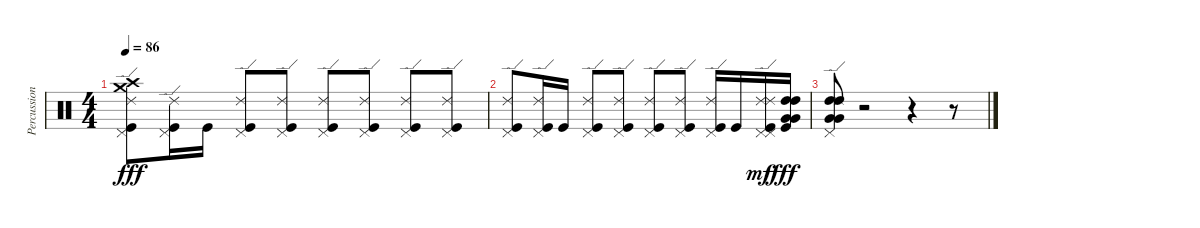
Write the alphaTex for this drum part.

\track ("Percussion" "Percussion") {instrument percussion}
\staff {score}
\articulation defaults
\ts (4 4)
\tempo 86
\clef neutral
\ks c
("Pedal Hi-Hat (hit)" "Ride (edge) 2" "Kick (hit)" "Crash medium (hit)" "Crash high (hit)").8{dy fff} ("Pedal Hi-Hat (hit)" "Ride (edge) 2" "Kick (hit)").16 "Kick (hit)".16 ("Pedal Hi-Hat (hit)" "Ride (edge) 2" "Kick (hit)").8 ("Pedal Hi-Hat (hit)" "Ride (edge) 2" "Kick (hit)").8 ("Pedal Hi-Hat (hit)" "Ride (edge) 2" "Kick (hit)").8 ("Pedal Hi-Hat (hit)" "Ride (edge) 2" "Kick (hit)").8 ("Pedal Hi-Hat (hit)" "Ride (edge) 2" "Kick (hit)").8 ("Pedal Hi-Hat (hit)" "Ride (edge) 2" "Kick (hit)").8 |
("Pedal Hi-Hat (hit)" "Ride (edge) 2" "Kick (hit)").8 ("Pedal Hi-Hat (hit)" "Ride (edge) 2" "Kick (hit)").16 "Kick (hit)".16 ("Pedal Hi-Hat (hit)" "Ride (edge) 2" "Kick (hit)").8 ("Pedal Hi-Hat (hit)" "Ride (edge) 2" "Kick (hit)").8 ("Pedal Hi-Hat (hit)" "Ride (edge) 2" "Kick (hit)").8 ("Pedal Hi-Hat (hit)" "Ride (edge) 2" "Kick (hit)").8 ("Pedal Hi-Hat (hit)" "Ride (edge) 2" "Kick (hit)").16 "Kick (hit)".16 ("Ride (edge) 2" "Pedal Hi-Hat (hit)" "Kick (hit)" "Ride (edge) 2" "Pedal Hi-Hat (hit)").16{dy mf} ("High Tom (hit)" "High Tom (hit)" "Very Low Tom (hit)" "Very Low Tom (hit)" "Kick (hit)").16{dy fff} |
("High Tom (hit)" "High Tom (hit)" "Very Low Tom (hit)" "Very Low Tom (hit)" "Pedal Hi-Hat (hit)" "Ride (edge) 2").8 r.2 r.4 r.8
